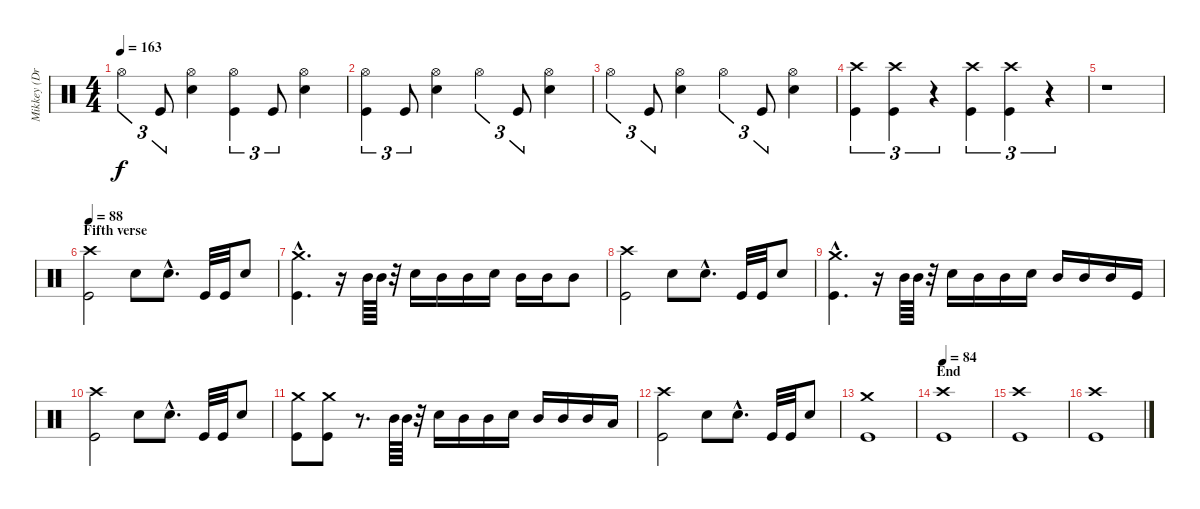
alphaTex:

\track ("Mikkey (Drums)" "Mikkey (Dr") {instrument percussion}
\staff {score}
\articulation defaults
\ts (4 4)
\tempo 163
\clef neutral
\ks c "Hi-Hat (open)".4{tu (3 2) dy f} "Kick (hit)".8{tu (3 2)}
("Hi-Hat (open)" "Electric Snare (hit)").4 ("Hi-Hat (open)" "Kick (hit)").4{tu (3 2)} "Kick (hit)".8{tu (3 2)} ("Hi-Hat (open)" "Electric Snare (hit)").4 |
("Hi-Hat (open)" "Kick (hit)").4{tu (3 2)} "Kick (hit)".8{tu (3 2)} ("Hi-Hat (open)" "Electric Snare (hit)").4 "Hi-Hat (open)".4{tu (3 2)} "Kick (hit)".8{tu (3 2)} ("Hi-Hat (open)" "Electric Snare (hit)").4 |
"Hi-Hat (open)".4{tu (3 2)} "Kick (hit)".8{tu (3 2)} ("Hi-Hat (open)" "Electric Snare (hit)").4 "Hi-Hat (open)".4{tu (3 2)} "Kick (hit)".8{tu (3 2)} ("Hi-Hat (open)" "Electric Snare (hit)").4 |
("Crash high (hit)" "Kick (hit)").4{tu (3 2)} ("Crash high (hit)" "Kick (hit)").4{tu (3 2)} r.4{tu (3 2)} ("Crash high (hit)" "Kick (hit)").4{tu (3 2)} ("Crash high (hit)" "Kick (hit)").4{tu (3 2)} r.4{tu (3 2)} |
r.1 |
\section ("" "Fifth verse")
\tempo 88
("Crash high (hit)" "Kick (hit)").2 "Electric Snare (hit)".8 "Electric Snare (hit)"{hac}.8{d} "Kick (hit)".32 "Kick (hit)".32 "Electric Snare (hit)".8 |
("Crash medium (hit)"{hac} "Kick (hit)"{hac}).4{d} r.16 "Mid Tom (hit)".64 "Mid Tom (hit)".64 r.32 "Electric Snare (hit)".16 "Mid Tom (hit)".16 "Mid Tom (hit)".16 "Electric Snare (hit)".16 "Mid Tom (hit)".16 "Mid Tom (hit)".16 "Mid Tom (hit)".8 |
("Crash high (hit)" "Kick (hit)").2 "Electric Snare (hit)".8 "Electric Snare (hit)"{hac}.8{d} "Kick (hit)".32 "Kick (hit)".32 "Electric Snare (hit)".8 |
("Crash medium (hit)"{hac} "Kick (hit)"{hac}).4{d} r.16 "Mid Tom (hit)".64 "Mid Tom (hit)".64 r.32 "Electric Snare (hit)".16 "Mid Tom (hit)".16 "Mid Tom (hit)".16 "Electric Snare (hit)".16 "Mid Tom (hit)".16 "Mid Tom (hit)".16 "Mid Tom (hit)".16 "Kick (hit)".16 |
("Crash high (hit)" "Kick (hit)").2 "Electric Snare (hit)".8 "Electric Snare (hit)"{hac}.8{d} "Kick (hit)".32 "Kick (hit)".32 "Electric Snare (hit)".8 |
("Crash medium (hit)" "Kick (hit)").8 ("Crash medium (hit)" "Kick (hit)").8 r.8{d} "Mid Tom (hit)".64 "Mid Tom (hit)".64 r.32 "Electric Snare (hit)".16 "Mid Tom (hit)".16 "Mid Tom (hit)".16 "Electric Snare (hit)".16 "Mid Tom (hit)".16 "Mid Tom (hit)".16 "Mid Tom (hit)".16 "Low Tom (hit)".16 |
("Crash high (hit)" "Kick (hit)").2 "Electric Snare (hit)".8 "Electric Snare (hit)"{hac}.8{d} "Kick (hit)".32 "Kick (hit)".32 "Electric Snare (hit)".8 |
("Crash medium (hit)" "Kick (hit)").1 |
\section ("" "End")
\tempo 84
("Crash high (hit)" "Kick (hit)").1 |
("Crash high (hit)" "Kick (hit)").1 |
("Crash high (hit)" "Kick (hit)").1
